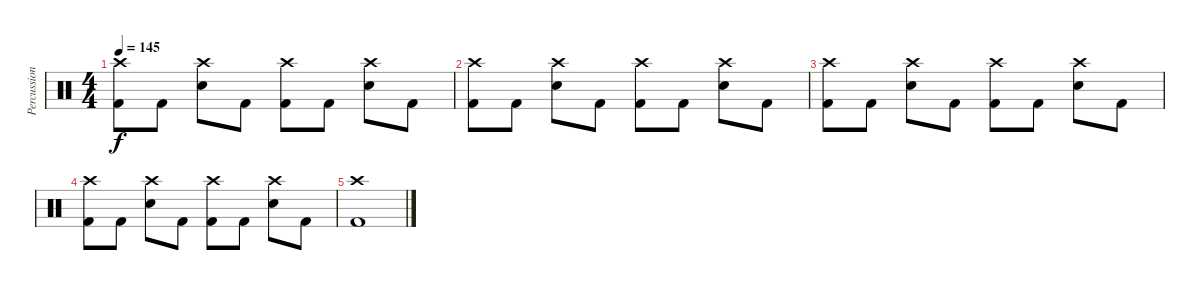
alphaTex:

\track ("Percussion" "Percussion") {instrument percussion}
\staff {score}
\articulation defaults
\ts (4 4)
\tempo 145
\clef neutral
\ks c
("Crash high (hit)" "Kick (hit) 2").8{dy f} "Kick (hit) 2".8 ("Crash high (hit)" "Electric Snare (hit)").8 "Kick (hit) 2".8 ("Crash high (hit)" "Kick (hit) 2").8 "Kick (hit) 2".8 ("Crash high (hit)" "Electric Snare (hit)").8 "Kick (hit) 2".8 |
("Crash high (hit)" "Kick (hit) 2").8 "Kick (hit) 2".8 ("Crash high (hit)" "Electric Snare (hit)").8 "Kick (hit) 2".8 ("Crash high (hit)" "Kick (hit) 2").8 "Kick (hit) 2".8 ("Crash high (hit)" "Electric Snare (hit)").8 "Kick (hit) 2".8 |
("Crash high (hit)" "Kick (hit) 2").8 "Kick (hit) 2".8 ("Crash high (hit)" "Electric Snare (hit)").8 "Kick (hit) 2".8 ("Crash high (hit)" "Kick (hit) 2").8 "Kick (hit) 2".8 ("Crash high (hit)" "Electric Snare (hit)").8 "Kick (hit) 2".8 |
("Crash high (hit)" "Kick (hit) 2").8 "Kick (hit) 2".8 ("Crash high (hit)" "Electric Snare (hit)").8 "Kick (hit) 2".8 ("Crash high (hit)" "Kick (hit) 2").8 "Kick (hit) 2".8 ("Crash high (hit)" "Electric Snare (hit)").8 "Kick (hit) 2".8 |
("Crash high (hit)" "Kick (hit) 2").1
